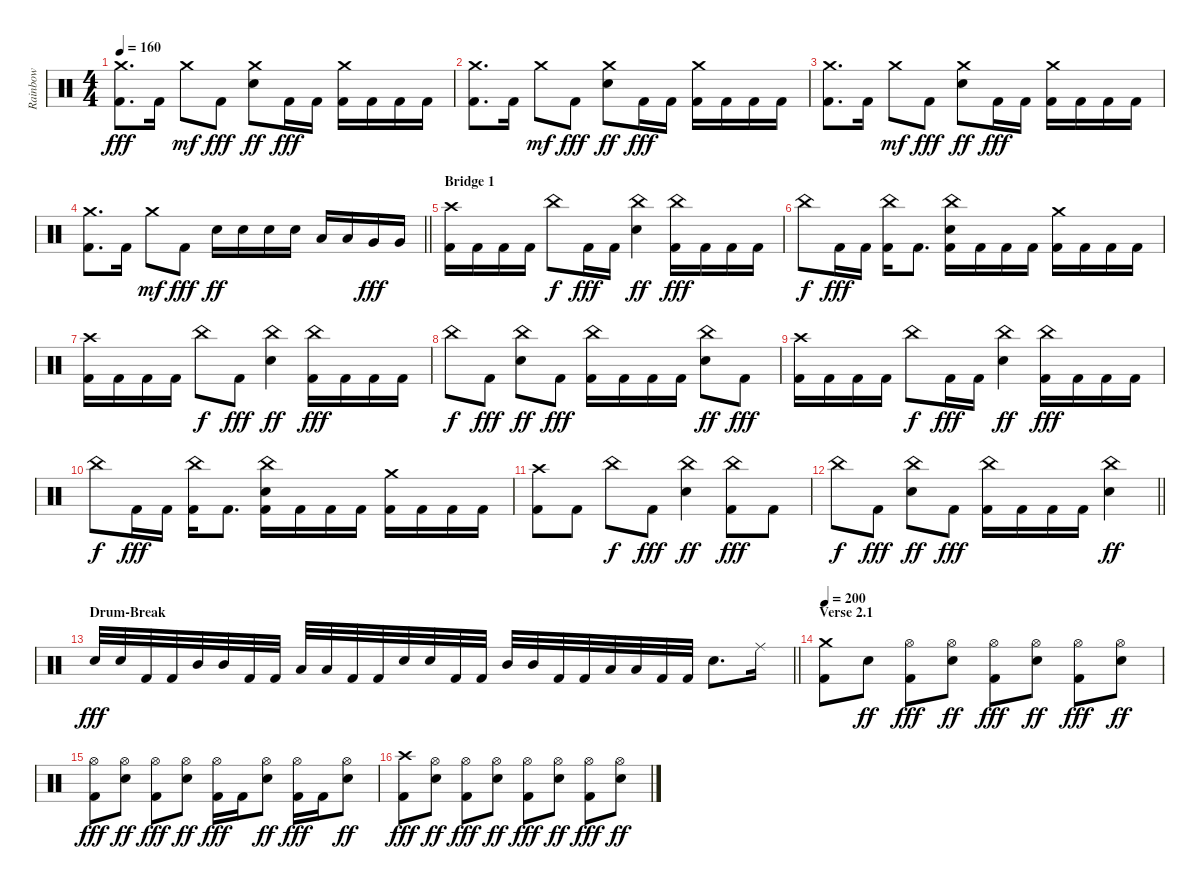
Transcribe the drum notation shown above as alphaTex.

\track ("Rainbow" "Rainbow") {instrument percussion}
\staff {score}
\articulation defaults
\ts (4 4)
\tempo 160
\clef neutral
\ks c
("Crash medium (hit)" "Kick (hit) 2").8{d dy fff} "Kick (hit) 2".16 "Crash medium (hit)".8{dy mf} "Kick (hit) 2".8{dy fff} ("Crash medium (hit)" "Electric Snare (hit)").8{dy ff} "Kick (hit) 2".16{dy fff} "Kick (hit) 2".16 ("Crash medium (hit)" "Kick (hit) 2").16 "Kick (hit) 2".16 "Kick (hit) 2".16 "Kick (hit) 2".16 |
("Crash medium (hit)" "Kick (hit) 2").8{d} "Kick (hit) 2".16 "Crash medium (hit)".8{dy mf} "Kick (hit) 2".8{dy fff} ("Crash medium (hit)" "Electric Snare (hit)").8{dy ff} "Kick (hit) 2".16{dy fff} "Kick (hit) 2".16 ("Crash medium (hit)" "Kick (hit) 2").16 "Kick (hit) 2".16 "Kick (hit) 2".16 "Kick (hit) 2".16 |
("Crash medium (hit)" "Kick (hit) 2").8{d} "Kick (hit) 2".16 "Crash medium (hit)".8{dy mf} "Kick (hit) 2".8{dy fff} ("Crash medium (hit)" "Electric Snare (hit)").8{dy ff} "Kick (hit) 2".16{dy fff} "Kick (hit) 2".16 ("Crash medium (hit)" "Kick (hit) 2").16 "Kick (hit) 2".16 "Kick (hit) 2".16 "Kick (hit) 2".16 |
\barLineRight lightlight
("Crash medium (hit)" "Kick (hit) 2").8{d} "Kick (hit) 2".16 "Crash medium (hit)".8{dy mf} "Kick (hit) 2".8{dy fff} "Electric Snare (hit)".16{dy ff} "Electric Snare (hit)".16 "Electric Snare (hit)".16 "Electric Snare (hit)".16 "Low Tom (hit)".16 "Low Tom (hit)".16 "Very Low Tom (hit)".16{dy fff} "Very Low Tom (hit)".16 |
\section ("" "Bridge 1")
("Crash high (hit)" "Kick (hit) 2").16 "Kick (hit) 2".16 "Kick (hit) 2".16 "Kick (hit) 2".16 "China (hit)".8{dy f} "Kick (hit) 2".16{dy fff} "Kick (hit) 2".16 ("China (hit)" "Electric Snare (hit)").4{dy ff} ("China (hit)" "Kick (hit) 2").16{dy fff} "Kick (hit) 2".16 "Kick (hit) 2".16 "Kick (hit) 2".16 |
"China (hit)".8{dy f} "Kick (hit) 2".16{dy fff} "Kick (hit) 2".16 ("China (hit)" "Kick (hit) 2").16 "Kick (hit) 2".8{d} ("China (hit)" "Electric Snare (hit)" "Kick (hit) 2").16 "Kick (hit) 2".16 "Kick (hit) 2".16 "Kick (hit) 2".16 ("Crash medium (hit)" "Kick (hit) 2").16 "Kick (hit) 2".16 "Kick (hit) 2".16 "Kick (hit) 2".16 |
("Crash high (hit)" "Kick (hit) 2").16 "Kick (hit) 2".16 "Kick (hit) 2".16 "Kick (hit) 2".16 "China (hit)".8{dy f} "Kick (hit) 2".8{dy fff} ("China (hit)" "Electric Snare (hit)").4{dy ff} ("China (hit)" "Kick (hit) 2").16{dy fff} "Kick (hit) 2".16 "Kick (hit) 2".16 "Kick (hit) 2".16 |
"China (hit)".8{dy f} "Kick (hit) 2".8{dy fff} ("China (hit)" "Electric Snare (hit)").8{dy ff} "Kick (hit) 2".8{dy fff} ("China (hit)" "Kick (hit) 2").16 "Kick (hit) 2".16 "Kick (hit) 2".16 "Kick (hit) 2".16 ("China (hit)" "Electric Snare (hit)").8{dy ff} "Kick (hit) 2".8{dy fff} |
("Crash high (hit)" "Kick (hit) 2").16 "Kick (hit) 2".16 "Kick (hit) 2".16 "Kick (hit) 2".16 "China (hit)".8{dy f} "Kick (hit) 2".16{dy fff} "Kick (hit) 2".16 ("China (hit)" "Electric Snare (hit)").4{dy ff} ("China (hit)" "Kick (hit) 2").16{dy fff} "Kick (hit) 2".16 "Kick (hit) 2".16 "Kick (hit) 2".16 |
"China (hit)".8{dy f} "Kick (hit) 2".16{dy fff} "Kick (hit) 2".16 ("China (hit)" "Kick (hit) 2").16 "Kick (hit) 2".8{d} ("China (hit)" "Electric Snare (hit)" "Kick (hit) 2").16 "Kick (hit) 2".16 "Kick (hit) 2".16 "Kick (hit) 2".16 ("Crash medium (hit)" "Kick (hit) 2").16 "Kick (hit) 2".16 "Kick (hit) 2".16 "Kick (hit) 2".16 |
("Crash high (hit)" "Kick (hit) 2").8 "Kick (hit) 2".8 "China (hit)".8{dy f} "Kick (hit) 2".8{dy fff} ("China (hit)" "Electric Snare (hit)").4{dy ff} ("China (hit)" "Kick (hit) 2").8{dy fff} "Kick (hit) 2".8 |
\barLineRight lightlight "China (hit)".8{dy f} "Kick (hit) 2".8{dy fff}
("China (hit)" "Electric Snare (hit)").8{dy ff} "Kick (hit) 2".8{dy fff} ("China (hit)" "Kick (hit) 2").16 "Kick (hit) 2".16 "Kick (hit) 2".16 "Kick (hit) 2".16 ("China (hit)" "Electric Snare (hit)").4{dy ff} |
\section ("" "Drum-Break")
\barLineRight lightlight "Electric Snare (hit)".32{dy fff} "Electric Snare (hit)".32 "Kick (hit) 2".32 "Kick (hit) 2".32 "Mid Tom (hit)".32 "Mid Tom (hit)".32 "Kick (hit) 2".32 "Kick (hit) 2".32 "Low Tom (hit)".32 "Low Tom (hit)".32 "Kick (hit) 2".32 "Kick (hit) 2".32 "Electric Snare (hit)".32 "Electric Snare (hit)".32 "Kick (hit) 2".32 "Kick (hit) 2".32 "Mid Tom (hit)".32 "Mid Tom (hit)".32 "Kick (hit) 2".32 "Kick (hit) 2".32 "Low Tom (hit)".32 "Low Tom (hit)".32 "Kick (hit) 2".32 "Kick (hit) 2".32 "Electric Snare (hit)".8{d} "Ride (middle)".16
|
\section ("" "Verse 2.1")
\tempo 200
("Crash medium (hit)" "Kick (hit) 2").8 "Electric Snare (hit)".8{dy ff} ("Hi-Hat (open)" "Kick (hit) 2").8{dy fff} ("Hi-Hat (open)" "Electric Snare (hit)").8{dy ff} ("Hi-Hat (open)" "Kick (hit) 2").8{dy fff} ("Hi-Hat (open)" "Electric Snare (hit)").8{dy ff} ("Hi-Hat (open)" "Kick (hit) 2").8{dy fff} ("Hi-Hat (open)" "Electric Snare (hit)").8{dy ff} |
("Hi-Hat (open)" "Kick (hit) 2").8{dy fff} ("Hi-Hat (open)" "Electric Snare (hit)").8{dy ff} ("Hi-Hat (open)" "Kick (hit) 2").8{dy fff} ("Hi-Hat (open)" "Electric Snare (hit)").8{dy ff} ("Hi-Hat (open)" "Kick (hit) 2").16{dy fff} "Kick (hit) 2".16 ("Hi-Hat (open)" "Electric Snare (hit)").8{dy ff} ("Hi-Hat (open)" "Kick (hit) 2").16{dy fff} "Kick (hit) 2".16 ("Hi-Hat (open)" "Electric Snare (hit)").8{dy ff} |
("Crash high (hit)" "Kick (hit) 2").8{dy fff} ("Hi-Hat (open)" "Electric Snare (hit)").8{dy ff} ("Hi-Hat (open)" "Kick (hit) 2").8{dy fff} ("Hi-Hat (open)" "Electric Snare (hit)").8{dy ff} ("Hi-Hat (open)" "Kick (hit) 2").8{dy fff} ("Hi-Hat (open)" "Electric Snare (hit)").8{dy ff} ("Hi-Hat (open)" "Kick (hit) 2").8{dy fff} ("Hi-Hat (open)" "Electric Snare (hit)").8{dy ff}
